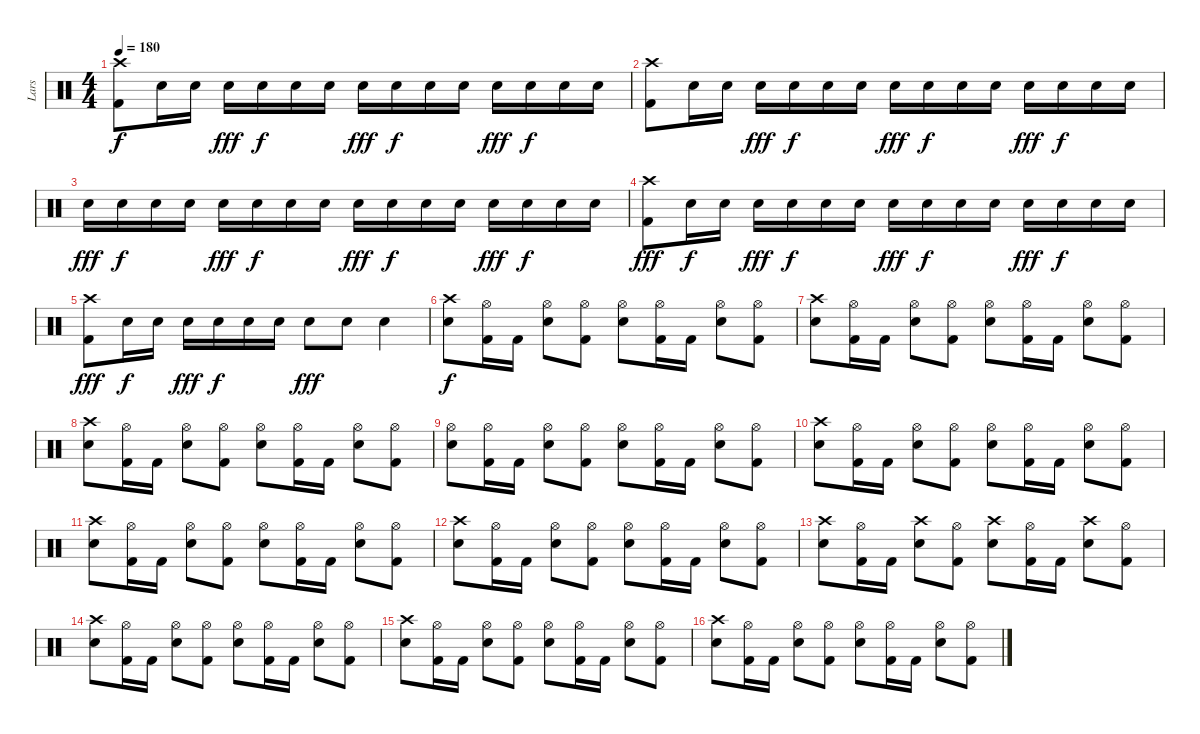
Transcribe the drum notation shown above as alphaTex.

\track ("Lars" "Lars") {instrument percussion}
\staff {score}
\articulation defaults
\ts (4 4)
\tempo 180
\clef neutral
\ks c
("Kick (hit) 2" "Crash high (hit)").8{dy f} "Snare (hit) 2".16 "Snare (hit) 2".16 "Snare (hit) 2".16{dy fff} "Snare (hit) 2".16{dy f} "Snare (hit) 2".16 "Snare (hit) 2".16 "Snare (hit) 2".16{dy fff} "Snare (hit) 2".16{dy f} "Snare (hit) 2".16 "Snare (hit) 2".16 "Snare (hit) 2".16{dy fff} "Snare (hit) 2".16{dy f} "Snare (hit) 2".16 "Snare (hit) 2".16 |
("Kick (hit) 2" "Crash high (hit)").8 "Snare (hit) 2".16 "Snare (hit) 2".16 "Snare (hit) 2".16{dy fff} "Snare (hit) 2".16{dy f} "Snare (hit) 2".16 "Snare (hit) 2".16 "Snare (hit) 2".16{dy fff} "Snare (hit) 2".16{dy f} "Snare (hit) 2".16 "Snare (hit) 2".16 "Snare (hit) 2".16{dy fff} "Snare (hit) 2".16{dy f} "Snare (hit) 2".16 "Snare (hit) 2".16 |
"Snare (hit) 2".16{dy fff} "Snare (hit) 2".16{dy f} "Snare (hit) 2".16 "Snare (hit) 2".16 "Snare (hit) 2".16{dy fff} "Snare (hit) 2".16{dy f} "Snare (hit) 2".16 "Snare (hit) 2".16 "Snare (hit) 2".16{dy fff} "Snare (hit) 2".16{dy f} "Snare (hit) 2".16 "Snare (hit) 2".16 "Snare (hit) 2".16{dy fff} "Snare (hit) 2".16{dy f} "Snare (hit) 2".16 "Snare (hit) 2".16 |
("Kick (hit) 2" "Crash high (hit)").8{dy fff} "Snare (hit) 2".16{dy f} "Snare (hit) 2".16 "Snare (hit) 2".16{dy fff} "Snare (hit) 2".16{dy f} "Snare (hit) 2".16 "Snare (hit) 2".16 "Snare (hit) 2".16{dy fff} "Snare (hit) 2".16{dy f} "Snare (hit) 2".16 "Snare (hit) 2".16 "Snare (hit) 2".16{dy fff} "Snare (hit) 2".16{dy f} "Snare (hit) 2".16 "Snare (hit) 2".16 |
("Kick (hit) 2" "Crash high (hit)").8{dy fff} "Snare (hit) 2".16{dy f} "Snare (hit) 2".16 "Snare (hit) 2".16{dy fff} "Snare (hit) 2".16{dy f} "Snare (hit) 2".16 "Snare (hit) 2".16 "Snare (hit) 2".8{dy fff} "Snare (hit) 2".8 "Snare (hit) 2".4 |
("Snare (hit) 2" "Crash high (hit)").8{dy f} ("Kick (hit) 2" "Hi-Hat (open)").16 "Kick (hit) 2".16 ("Snare (hit) 2" "Hi-Hat (open)").8 ("Kick (hit) 2" "Hi-Hat (open)").8 ("Snare (hit) 2" "Hi-Hat (open)").8 ("Kick (hit) 2" "Hi-Hat (open)").16 "Kick (hit) 2".16 ("Snare (hit) 2" "Hi-Hat (open)").8 ("Kick (hit) 2" "Hi-Hat (open)").8 |
("Snare (hit) 2" "Crash high (hit)").8 ("Kick (hit) 2" "Hi-Hat (open)").16 "Kick (hit) 2".16 ("Snare (hit) 2" "Hi-Hat (open)").8 ("Kick (hit) 2" "Hi-Hat (open)").8 ("Snare (hit) 2" "Hi-Hat (open)").8 ("Kick (hit) 2" "Hi-Hat (open)").16 "Kick (hit) 2".16 ("Snare (hit) 2" "Hi-Hat (open)").8 ("Kick (hit) 2" "Hi-Hat (open)").8 |
("Snare (hit) 2" "Crash high (hit)").8 ("Kick (hit) 2" "Hi-Hat (open)").16 "Kick (hit) 2".16 ("Snare (hit) 2" "Hi-Hat (open)").8 ("Kick (hit) 2" "Hi-Hat (open)").8 ("Snare (hit) 2" "Hi-Hat (open)").8 ("Kick (hit) 2" "Hi-Hat (open)").16 "Kick (hit) 2".16 ("Snare (hit) 2" "Hi-Hat (open)").8 ("Kick (hit) 2" "Hi-Hat (open)").8 |
("Snare (hit) 2" "Hi-Hat (open)").8 ("Kick (hit) 2" "Hi-Hat (open)").16 "Kick (hit) 2".16 ("Snare (hit) 2" "Hi-Hat (open)").8 ("Kick (hit) 2" "Hi-Hat (open)").8 ("Snare (hit) 2" "Hi-Hat (open)").8 ("Kick (hit) 2" "Hi-Hat (open)").16 "Kick (hit) 2".16 ("Snare (hit) 2" "Hi-Hat (open)").8 ("Kick (hit) 2" "Hi-Hat (open)").8 |
("Snare (hit) 2" "Crash high (hit)").8 ("Kick (hit) 2" "Hi-Hat (open)").16 "Kick (hit) 2".16 ("Snare (hit) 2" "Hi-Hat (open)").8 ("Kick (hit) 2" "Hi-Hat (open)").8 ("Snare (hit) 2" "Hi-Hat (open)").8 ("Kick (hit) 2" "Hi-Hat (open)").16 "Kick (hit) 2".16 ("Snare (hit) 2" "Hi-Hat (open)").8 ("Kick (hit) 2" "Hi-Hat (open)").8 |
("Snare (hit) 2" "Crash high (hit)").8 ("Kick (hit) 2" "Hi-Hat (open)").16 "Kick (hit) 2".16 ("Snare (hit) 2" "Hi-Hat (open)").8 ("Kick (hit) 2" "Hi-Hat (open)").8 ("Snare (hit) 2" "Hi-Hat (open)").8 ("Kick (hit) 2" "Hi-Hat (open)").16 "Kick (hit) 2".16 ("Snare (hit) 2" "Hi-Hat (open)").8 ("Kick (hit) 2" "Hi-Hat (open)").8 |
("Snare (hit) 2" "Crash high (hit)").8 ("Kick (hit) 2" "Hi-Hat (open)").16 "Kick (hit) 2".16 ("Snare (hit) 2" "Hi-Hat (open)").8 ("Kick (hit) 2" "Hi-Hat (open)").8 ("Snare (hit) 2" "Hi-Hat (open)").8 ("Kick (hit) 2" "Hi-Hat (open)").16 "Kick (hit) 2".16 ("Snare (hit) 2" "Hi-Hat (open)").8 ("Kick (hit) 2" "Hi-Hat (open)").8 |
("Snare (hit) 2" "Crash high (hit)").8 ("Kick (hit) 2" "Hi-Hat (open)").16 "Kick (hit) 2".16 ("Snare (hit) 2" "Crash high (hit)").8 ("Kick (hit) 2" "Hi-Hat (open)").8 ("Snare (hit) 2" "Crash high (hit)").8 ("Kick (hit) 2" "Hi-Hat (open)").16 "Kick (hit) 2".16 ("Snare (hit) 2" "Crash high (hit)").8 ("Kick (hit) 2" "Hi-Hat (open)").8 |
("Snare (hit) 2" "Crash high (hit)").8 ("Kick (hit) 2" "Hi-Hat (open)").16 "Kick (hit) 2".16 ("Snare (hit) 2" "Hi-Hat (open)").8 ("Kick (hit) 2" "Hi-Hat (open)").8 ("Snare (hit) 2" "Hi-Hat (open)").8 ("Kick (hit) 2" "Hi-Hat (open)").16 "Kick (hit) 2".16 ("Snare (hit) 2" "Hi-Hat (open)").8 ("Kick (hit) 2" "Hi-Hat (open)").8 |
("Snare (hit) 2" "Crash high (hit)").8 ("Kick (hit) 2" "Hi-Hat (open)").16 "Kick (hit) 2".16 ("Snare (hit) 2" "Hi-Hat (open)").8 ("Kick (hit) 2" "Hi-Hat (open)").8 ("Snare (hit) 2" "Hi-Hat (open)").8 ("Kick (hit) 2" "Hi-Hat (open)").16 "Kick (hit) 2".16 ("Snare (hit) 2" "Hi-Hat (open)").8 ("Kick (hit) 2" "Hi-Hat (open)").8 |
("Snare (hit) 2" "Crash high (hit)").8 ("Kick (hit) 2" "Hi-Hat (open)").16 "Kick (hit) 2".16 ("Snare (hit) 2" "Hi-Hat (open)").8 ("Kick (hit) 2" "Hi-Hat (open)").8 ("Snare (hit) 2" "Hi-Hat (open)").8 ("Kick (hit) 2" "Hi-Hat (open)").16 "Kick (hit) 2".16 ("Snare (hit) 2" "Hi-Hat (open)").8 ("Kick (hit) 2" "Hi-Hat (open)").8
